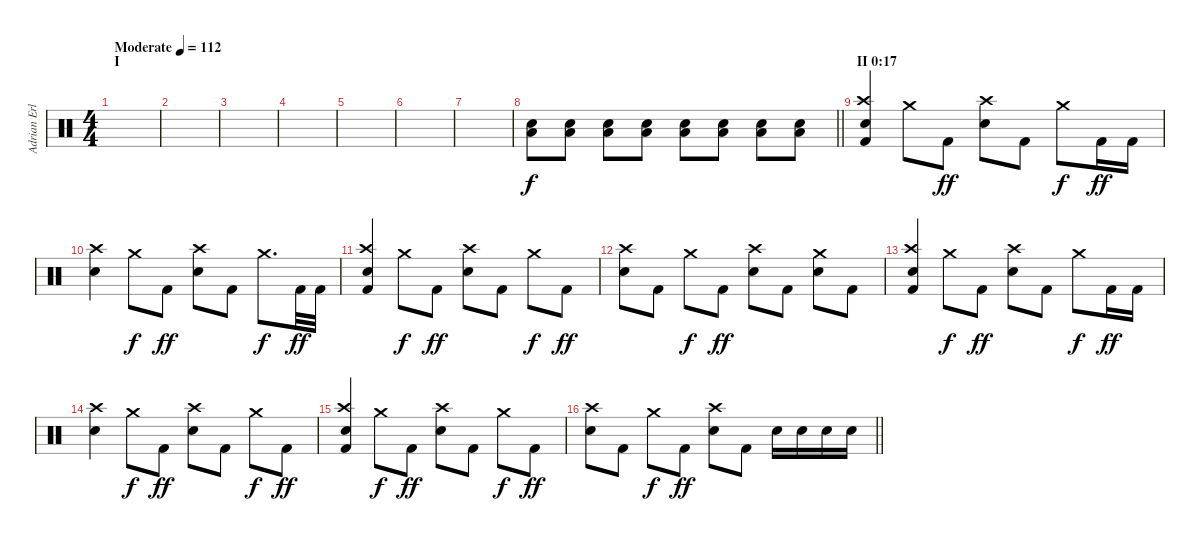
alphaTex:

\track ("Adrian Erlandsson (Drums)" "Adrian Erl") {instrument percussion}
\staff {score}
\articulation defaults
\ts (4 4)
\section ("" "I ")
\tempo (112 "Moderate")
\clef neutral
\ks c
|
|
|
|
|
|
|
\barLineRight lightlight
("Electric Snare (hit)" "Low Floor Tom (hit)").8 ("Electric Snare (hit)" "Low Floor Tom (hit)").8 ("Electric Snare (hit)" "Low Floor Tom (hit)").8 ("Electric Snare (hit)" "Low Floor Tom (hit)").8 ("Electric Snare (hit)" "Low Floor Tom (hit)").8 ("Electric Snare (hit)" "Low Floor Tom (hit)").8 ("Electric Snare (hit)" "Low Floor Tom (hit)").8 ("Electric Snare (hit)" "Low Floor Tom (hit)").8 |
\section ("" "II 0:17")
("Crash high (hit)" "Electric Snare (hit)" "Kick (hit) 2").4 "Crash medium (hit)".8{dy f} "Kick (hit) 2".8{dy ff} ("Crash high (hit)" "Electric Snare (hit)").8 "Kick (hit) 2".8 "Crash medium (hit)".8{dy f} "Kick (hit) 2".16{dy ff} "Kick (hit) 2".16 |
("Crash high (hit)" "Electric Snare (hit)").4 "Crash medium (hit)".8{dy f} "Kick (hit) 2".8{dy ff} ("Crash high (hit)" "Electric Snare (hit)").8 "Kick (hit) 2".8 "Crash medium (hit)".8{d dy f} "Kick (hit) 2".32{dy ff} "Kick (hit) 2".32 |
("Crash high (hit)" "Electric Snare (hit)" "Kick (hit) 2").4 "Crash medium (hit)".8{dy f} "Kick (hit) 2".8{dy ff} ("Crash high (hit)" "Electric Snare (hit)").8 "Kick (hit) 2".8 "Crash medium (hit)".8{dy f} "Kick (hit) 2".8{dy ff} |
("Crash high (hit)" "Electric Snare (hit)").8 "Kick (hit) 2".8 "Crash medium (hit)".8{dy f} "Kick (hit) 2".8{dy ff} ("Crash high (hit)" "Electric Snare (hit)").8 "Kick (hit) 2".8 ("Crash medium (hit)" "Electric Snare (hit)").8 "Kick (hit) 2".8 |
("Crash high (hit)" "Electric Snare (hit)" "Kick (hit) 2").4 "Crash medium (hit)".8{dy f} "Kick (hit) 2".8{dy ff} ("Crash high (hit)" "Electric Snare (hit)").8 "Kick (hit) 2".8 "Crash medium (hit)".8{dy f} "Kick (hit) 2".16{dy ff} "Kick (hit) 2".16 |
("Crash high (hit)" "Electric Snare (hit)").4 "Crash medium (hit)".8{dy f} "Kick (hit) 2".8{dy ff} ("Crash high (hit)" "Electric Snare (hit)").8 "Kick (hit) 2".8 "Crash medium (hit)".8{dy f} "Kick (hit) 2".8{dy ff} |
("Crash high (hit)" "Electric Snare (hit)" "Kick (hit) 2").4 "Crash medium (hit)".8{dy f} "Kick (hit) 2".8{dy ff} ("Crash high (hit)" "Electric Snare (hit)").8 "Kick (hit) 2".8 "Crash medium (hit)".8{dy f} "Kick (hit) 2".8{dy ff} |
\barLineRight lightlight
("Crash high (hit)" "Electric Snare (hit)").8 "Kick (hit) 2".8 "Crash medium (hit)".8{dy f} "Kick (hit) 2".8{dy ff} ("Crash high (hit)" "Electric Snare (hit)").8 "Kick (hit) 2".8 "Electric Snare (hit)".16 "Electric Snare (hit)".16 "Electric Snare (hit)".16 "Electric Snare (hit)".16
